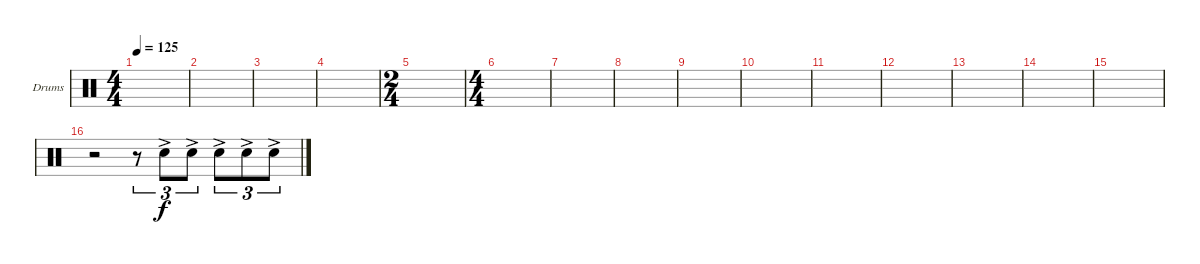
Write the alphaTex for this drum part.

\defaultSystemsLayout 4
\bracketExtendMode groupsimilarinstruments
\firstSystemTrackNameOrientation horizontal
\otherSystemsTrackNameOrientation horizontal
\track ("Drumkit" "Drums") {instrument percussion}
\staff {score}
\articulation defaults
\ts (4 4)
\tempo 125
\clef neutral
\scale
0.333333
\ks c
|
\scale
0.333333 |
\scale
0.262911 |
\scale
0.262911 |
\ts (2 4)
\scale
0.474178 |
\ts (4 4)
\scale
0.474178 |
\scale
0.262911 |
\scale
0.262911 |
\scale
0.333333 |
\scale
0.333333 |
\scale
0.333333 |
\scale
0.333333 |
\scale
0.333333 |
\scale
0.333333 |
\scale
0.333333 |
\scale
0.333333 r.2 r.8{tu (3 2)} "Snare (hit) 2"{ac}.8{tu (3 2)} "Snare (hit) 2"{ac}.8{tu (3 2)} "Snare (hit) 2"{ac}.8{tu (3 2)} "Snare (hit) 2"{ac}.8{tu (3 2)} "Snare (hit) 2"{ac}.8{tu (3 2)}
